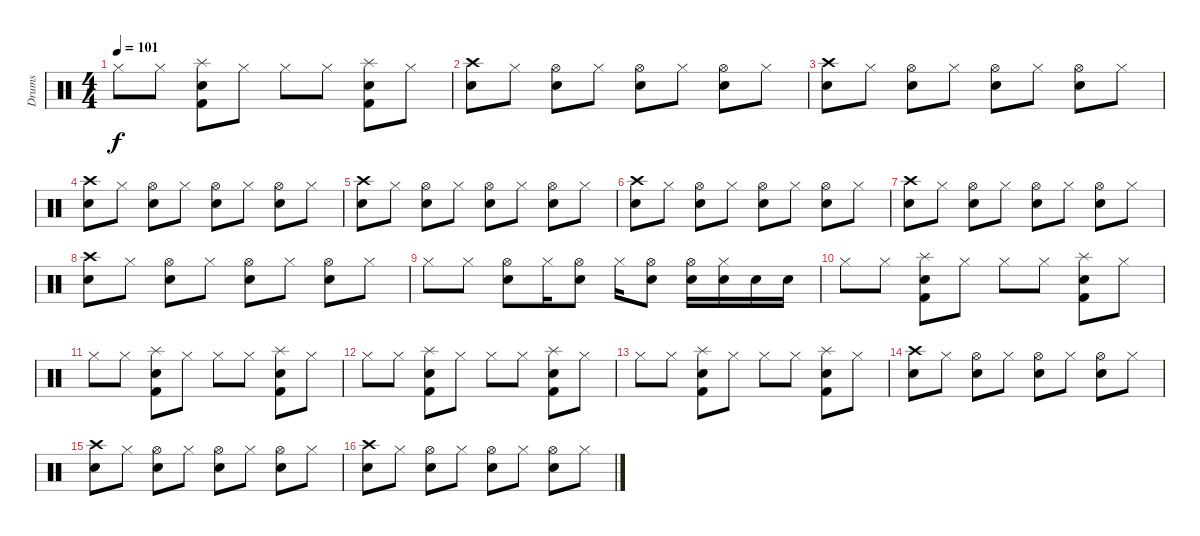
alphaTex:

\track ("Drums" "Drums") {instrument percussion}
\staff {score}
\articulation defaults
\ts (4 4)
\tempo 101
\clef neutral
\ks c "Hi-Hat (closed)".8{dy f} "Hi-Hat (closed)".8
("Snare (hit) 2" "Splash (hit)" "Kick (hit) 2").8 "Hi-Hat (closed)".8 "Hi-Hat (closed)".8 "Hi-Hat (closed)".8 ("Snare (hit) 2" "Splash (hit)" "Kick (hit) 2").8 "Hi-Hat (closed)".8 |
("Crash high (hit)" "Snare (hit) 2").8 "Hi-Hat (closed)".8 ("Hi-Hat (open)" "Snare (hit) 2").8 "Hi-Hat (closed)".8 ("Hi-Hat (open)" "Snare (hit) 2").8 "Hi-Hat (closed)".8 ("Hi-Hat (open)" "Snare (hit) 2").8 "Hi-Hat (closed)".8 |
("Crash high (hit)" "Snare (hit) 2").8 "Hi-Hat (closed)".8 ("Hi-Hat (open)" "Snare (hit) 2").8 "Hi-Hat (closed)".8 ("Hi-Hat (open)" "Snare (hit) 2").8 "Hi-Hat (closed)".8 ("Hi-Hat (open)" "Snare (hit) 2").8 "Hi-Hat (closed)".8 |
("Crash high (hit)" "Snare (hit) 2").8 "Hi-Hat (closed)".8 ("Hi-Hat (open)" "Snare (hit) 2").8 "Hi-Hat (closed)".8 ("Hi-Hat (open)" "Snare (hit) 2").8 "Hi-Hat (closed)".8 ("Hi-Hat (open)" "Snare (hit) 2").8 "Hi-Hat (closed)".8 |
("Crash high (hit)" "Snare (hit) 2").8 "Hi-Hat (closed)".8 ("Hi-Hat (open)" "Snare (hit) 2").8 "Hi-Hat (closed)".8 ("Hi-Hat (open)" "Snare (hit) 2").8 "Hi-Hat (closed)".8 ("Hi-Hat (open)" "Snare (hit) 2").8 "Hi-Hat (closed)".8 |
("Crash high (hit)" "Snare (hit) 2").8 "Hi-Hat (closed)".8 ("Hi-Hat (open)" "Snare (hit) 2").8 "Hi-Hat (closed)".8 ("Hi-Hat (open)" "Snare (hit) 2").8 "Hi-Hat (closed)".8 ("Hi-Hat (open)" "Snare (hit) 2").8 "Hi-Hat (closed)".8 |
("Crash high (hit)" "Snare (hit) 2").8 "Hi-Hat (closed)".8 ("Hi-Hat (open)" "Snare (hit) 2").8 "Hi-Hat (closed)".8 ("Hi-Hat (open)" "Snare (hit) 2").8 "Hi-Hat (closed)".8 ("Hi-Hat (open)" "Snare (hit) 2").8 "Hi-Hat (closed)".8 |
("Crash high (hit)" "Snare (hit) 2").8 "Hi-Hat (closed)".8 ("Hi-Hat (open)" "Snare (hit) 2").8 "Hi-Hat (closed)".8 ("Hi-Hat (open)" "Snare (hit) 2").8 "Hi-Hat (closed)".8 ("Hi-Hat (open)" "Snare (hit) 2").8 "Hi-Hat (closed)".8 |
"Hi-Hat (closed)".8 "Hi-Hat (closed)".8 ("Hi-Hat (open)" "Snare (hit) 2").8 "Hi-Hat (closed)".16 ("Hi-Hat (open)" "Snare (hit) 2").8 "Hi-Hat (closed)".16 ("Hi-Hat (open)" "Snare (hit) 2").8 ("Hi-Hat (open)" "Snare (hit) 2").16 ("Snare (hit) 2" "Hi-Hat (closed)").16 "Snare (hit) 2".16 "Snare (hit) 2".16 |
"Hi-Hat (closed)".8 "Hi-Hat (closed)".8 ("Snare (hit) 2" "Splash (hit)" "Kick (hit) 2").8 "Hi-Hat (closed)".8 "Hi-Hat (closed)".8 "Hi-Hat (closed)".8 ("Snare (hit) 2" "Splash (hit)" "Kick (hit) 2").8 "Hi-Hat (closed)".8 |
"Hi-Hat (closed)".8 "Hi-Hat (closed)".8 ("Snare (hit) 2" "Splash (hit)" "Kick (hit) 2").8 "Hi-Hat (closed)".8 "Hi-Hat (closed)".8 "Hi-Hat (closed)".8 ("Snare (hit) 2" "Splash (hit)" "Kick (hit) 2").8 "Hi-Hat (closed)".8 |
"Hi-Hat (closed)".8 "Hi-Hat (closed)".8 ("Snare (hit) 2" "Splash (hit)" "Kick (hit) 2").8 "Hi-Hat (closed)".8 "Hi-Hat (closed)".8 "Hi-Hat (closed)".8 ("Snare (hit) 2" "Splash (hit)" "Kick (hit) 2").8 "Hi-Hat (closed)".8 |
"Hi-Hat (closed)".8 "Hi-Hat (closed)".8 ("Snare (hit) 2" "Splash (hit)" "Kick (hit) 2").8 "Hi-Hat (closed)".8 "Hi-Hat (closed)".8 "Hi-Hat (closed)".8 ("Snare (hit) 2" "Splash (hit)" "Kick (hit) 2").8 "Hi-Hat (closed)".8 |
("Crash high (hit)" "Snare (hit) 2").8 "Hi-Hat (closed)".8 ("Hi-Hat (open)" "Snare (hit) 2").8 "Hi-Hat (closed)".8 ("Hi-Hat (open)" "Snare (hit) 2").8 "Hi-Hat (closed)".8 ("Hi-Hat (open)" "Snare (hit) 2").8 "Hi-Hat (closed)".8 |
("Crash high (hit)" "Snare (hit) 2").8 "Hi-Hat (closed)".8 ("Hi-Hat (open)" "Snare (hit) 2").8 "Hi-Hat (closed)".8 ("Hi-Hat (open)" "Snare (hit) 2").8 "Hi-Hat (closed)".8 ("Hi-Hat (open)" "Snare (hit) 2").8 "Hi-Hat (closed)".8 |
("Crash high (hit)" "Snare (hit) 2").8 "Hi-Hat (closed)".8 ("Hi-Hat (open)" "Snare (hit) 2").8 "Hi-Hat (closed)".8 ("Hi-Hat (open)" "Snare (hit) 2").8 "Hi-Hat (closed)".8 ("Hi-Hat (open)" "Snare (hit) 2").8 "Hi-Hat (closed)".8
